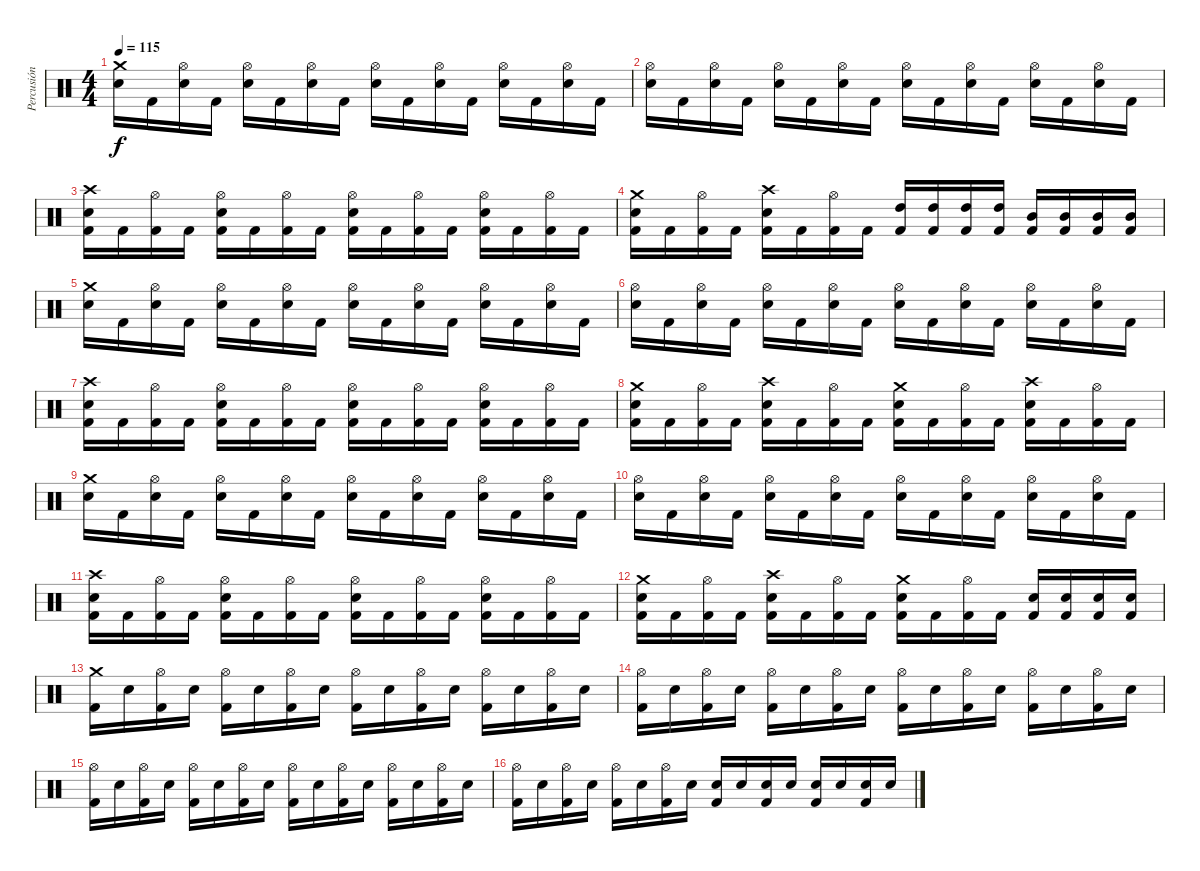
\track ("Percusión" "Percusión") {instrument percussion}
\staff {score}
\articulation defaults
\ts (4 4)
\tempo 115
\clef neutral
\ks c
("Crash medium (hit)" "Snare (hit) 2").16{dy f} "Kick (hit) 2".16 ("Hi-Hat (open)" "Snare (hit) 2").16 "Kick (hit) 2".16 ("Hi-Hat (open)" "Snare (hit) 2").16 "Kick (hit) 2".16 ("Hi-Hat (open)" "Snare (hit) 2").16 "Kick (hit) 2".16 ("Hi-Hat (open)" "Snare (hit) 2").16 "Kick (hit) 2".16 ("Hi-Hat (open)" "Snare (hit) 2").16 "Kick (hit) 2".16 ("Hi-Hat (open)" "Snare (hit) 2").16 "Kick (hit) 2".16 ("Hi-Hat (open)" "Snare (hit) 2").16 "Kick (hit) 2".16 |
("Hi-Hat (open)" "Snare (hit) 2").16 "Kick (hit) 2".16 ("Hi-Hat (open)" "Snare (hit) 2").16 "Kick (hit) 2".16 ("Hi-Hat (open)" "Snare (hit) 2").16 "Kick (hit) 2".16 ("Hi-Hat (open)" "Snare (hit) 2").16 "Kick (hit) 2".16 ("Hi-Hat (open)" "Snare (hit) 2").16 "Kick (hit) 2".16 ("Hi-Hat (open)" "Snare (hit) 2").16 "Kick (hit) 2".16 ("Hi-Hat (open)" "Snare (hit) 2").16 "Kick (hit) 2".16 ("Hi-Hat (open)" "Snare (hit) 2").16 "Kick (hit) 2".16 |
("Crash high (hit)" "Snare (hit) 2" "Kick (hit) 2").16 "Kick (hit) 2".16 ("Hi-Hat (open)" "Kick (hit) 2").16 "Kick (hit) 2".16 ("Hi-Hat (open)" "Snare (hit) 2" "Kick (hit) 2").16 "Kick (hit) 2".16 ("Hi-Hat (open)" "Kick (hit) 2").16 "Kick (hit) 2".16 ("Hi-Hat (open)" "Snare (hit) 2" "Kick (hit) 2").16 "Kick (hit) 2".16 ("Hi-Hat (open)" "Kick (hit) 2").16 "Kick (hit) 2".16 ("Hi-Hat (open)" "Snare (hit) 2" "Kick (hit) 2").16 "Kick (hit) 2".16 ("Hi-Hat (open)" "Kick (hit) 2").16 "Kick (hit) 2".16 |
("Crash medium (hit)" "Snare (hit) 2" "Kick (hit) 2").16 "Kick (hit) 2".16 ("Hi-Hat (open)" "Kick (hit) 2").16 "Kick (hit) 2".16 ("Crash high (hit)" "Snare (hit) 2" "Kick (hit) 2").16 "Kick (hit) 2".16 ("Hi-Hat (open)" "Kick (hit) 2").16 "Kick (hit) 2".16 ("High Tom (hit)" "Kick (hit) 2").16 ("High Tom (hit)" "Kick (hit) 2").16 ("High Tom (hit)" "Kick (hit) 2").16 ("High Tom (hit)" "Kick (hit) 2").16 ("Mid Tom (hit)" "Kick (hit) 2").16 ("Mid Tom (hit)" "Kick (hit) 2").16 ("Mid Tom (hit)" "Kick (hit) 2").16 ("Mid Tom (hit)" "Kick (hit) 2").16 |
("Crash medium (hit)" "Snare (hit) 2").16 "Kick (hit) 2".16 ("Hi-Hat (open)" "Snare (hit) 2").16 "Kick (hit) 2".16 ("Hi-Hat (open)" "Snare (hit) 2").16 "Kick (hit) 2".16 ("Hi-Hat (open)" "Snare (hit) 2").16 "Kick (hit) 2".16 ("Hi-Hat (open)" "Snare (hit) 2").16 "Kick (hit) 2".16 ("Hi-Hat (open)" "Snare (hit) 2").16 "Kick (hit) 2".16 ("Hi-Hat (open)" "Snare (hit) 2").16 "Kick (hit) 2".16 ("Hi-Hat (open)" "Snare (hit) 2").16 "Kick (hit) 2".16 |
("Hi-Hat (open)" "Snare (hit) 2").16 "Kick (hit) 2".16 ("Hi-Hat (open)" "Snare (hit) 2").16 "Kick (hit) 2".16 ("Hi-Hat (open)" "Snare (hit) 2").16 "Kick (hit) 2".16 ("Hi-Hat (open)" "Snare (hit) 2").16 "Kick (hit) 2".16 ("Hi-Hat (open)" "Snare (hit) 2").16 "Kick (hit) 2".16 ("Hi-Hat (open)" "Snare (hit) 2").16 "Kick (hit) 2".16 ("Hi-Hat (open)" "Snare (hit) 2").16 "Kick (hit) 2".16 ("Hi-Hat (open)" "Snare (hit) 2").16 "Kick (hit) 2".16 |
("Crash high (hit)" "Snare (hit) 2" "Kick (hit) 2").16 "Kick (hit) 2".16 ("Hi-Hat (open)" "Kick (hit) 2").16 "Kick (hit) 2".16 ("Hi-Hat (open)" "Snare (hit) 2" "Kick (hit) 2").16 "Kick (hit) 2".16 ("Hi-Hat (open)" "Kick (hit) 2").16 "Kick (hit) 2".16 ("Hi-Hat (open)" "Snare (hit) 2" "Kick (hit) 2").16 "Kick (hit) 2".16 ("Hi-Hat (open)" "Kick (hit) 2").16 "Kick (hit) 2".16 ("Hi-Hat (open)" "Snare (hit) 2" "Kick (hit) 2").16 "Kick (hit) 2".16 ("Hi-Hat (open)" "Kick (hit) 2").16 "Kick (hit) 2".16 |
("Crash medium (hit)" "Snare (hit) 2" "Kick (hit) 2").16 "Kick (hit) 2".16 ("Hi-Hat (open)" "Kick (hit) 2").16 "Kick (hit) 2".16 ("Crash high (hit)" "Snare (hit) 2" "Kick (hit) 2").16 "Kick (hit) 2".16 ("Hi-Hat (open)" "Kick (hit) 2").16 "Kick (hit) 2".16 ("Crash medium (hit)" "Snare (hit) 2" "Kick (hit) 2").16 "Kick (hit) 2".16 ("Hi-Hat (open)" "Kick (hit) 2").16 "Kick (hit) 2".16 ("Crash high (hit)" "Snare (hit) 2" "Kick (hit) 2").16 "Kick (hit) 2".16 ("Hi-Hat (open)" "Kick (hit) 2").16 "Kick (hit) 2".16 |
("Crash medium (hit)" "Snare (hit) 2").16 "Kick (hit) 2".16 ("Hi-Hat (open)" "Snare (hit) 2").16 "Kick (hit) 2".16 ("Hi-Hat (open)" "Snare (hit) 2").16 "Kick (hit) 2".16 ("Hi-Hat (open)" "Snare (hit) 2").16 "Kick (hit) 2".16 ("Hi-Hat (open)" "Snare (hit) 2").16 "Kick (hit) 2".16 ("Hi-Hat (open)" "Snare (hit) 2").16 "Kick (hit) 2".16 ("Hi-Hat (open)" "Snare (hit) 2").16 "Kick (hit) 2".16 ("Hi-Hat (open)" "Snare (hit) 2").16 "Kick (hit) 2".16 |
("Hi-Hat (open)" "Snare (hit) 2").16 "Kick (hit) 2".16 ("Hi-Hat (open)" "Snare (hit) 2").16 "Kick (hit) 2".16 ("Hi-Hat (open)" "Snare (hit) 2").16 "Kick (hit) 2".16 ("Hi-Hat (open)" "Snare (hit) 2").16 "Kick (hit) 2".16 ("Hi-Hat (open)" "Snare (hit) 2").16 "Kick (hit) 2".16 ("Hi-Hat (open)" "Snare (hit) 2").16 "Kick (hit) 2".16 ("Hi-Hat (open)" "Snare (hit) 2").16 "Kick (hit) 2".16 ("Hi-Hat (open)" "Snare (hit) 2").16 "Kick (hit) 2".16 |
("Crash high (hit)" "Snare (hit) 2" "Kick (hit) 2").16 "Kick (hit) 2".16 ("Hi-Hat (open)" "Kick (hit) 2").16 "Kick (hit) 2".16 ("Hi-Hat (open)" "Snare (hit) 2" "Kick (hit) 2").16 "Kick (hit) 2".16 ("Hi-Hat (open)" "Kick (hit) 2").16 "Kick (hit) 2".16 ("Hi-Hat (open)" "Snare (hit) 2" "Kick (hit) 2").16 "Kick (hit) 2".16 ("Hi-Hat (open)" "Kick (hit) 2").16 "Kick (hit) 2".16 ("Hi-Hat (open)" "Snare (hit) 2" "Kick (hit) 2").16 "Kick (hit) 2".16 ("Hi-Hat (open)" "Kick (hit) 2").16 "Kick (hit) 2".16 |
("Crash medium (hit)" "Snare (hit) 2" "Kick (hit) 2").16 "Kick (hit) 2".16 ("Hi-Hat (open)" "Kick (hit) 2").16 "Kick (hit) 2".16 ("Crash high (hit)" "Snare (hit) 2" "Kick (hit) 2").16 "Kick (hit) 2".16 ("Hi-Hat (open)" "Kick (hit) 2").16 "Kick (hit) 2".16 ("Crash medium (hit)" "Snare (hit) 2" "Kick (hit) 2").16 "Kick (hit) 2".16 ("Hi-Hat (open)" "Kick (hit) 2").16 "Kick (hit) 2".16 ("Snare (hit) 2" "Kick (hit) 2").16 ("Snare (hit) 2" "Kick (hit) 2").16 ("Snare (hit) 2" "Kick (hit) 2").16 ("Snare (hit) 2" "Kick (hit) 2").16 |
("Crash medium (hit)" "Kick (hit) 2").16 "Snare (hit) 2".16 ("Hi-Hat (open)" "Kick (hit) 2").16 "Snare (hit) 2".16 ("Hi-Hat (open)" "Kick (hit) 2").16 "Snare (hit) 2".16 ("Hi-Hat (open)" "Kick (hit) 2").16 "Snare (hit) 2".16 ("Hi-Hat (open)" "Kick (hit) 2").16 "Snare (hit) 2".16 ("Hi-Hat (open)" "Kick (hit) 2").16 "Snare (hit) 2".16 ("Hi-Hat (open)" "Kick (hit) 2").16 "Snare (hit) 2".16 ("Hi-Hat (open)" "Kick (hit) 2").16 "Snare (hit) 2".16 |
("Hi-Hat (open)" "Kick (hit) 2").16 "Snare (hit) 2".16 ("Hi-Hat (open)" "Kick (hit) 2").16 "Snare (hit) 2".16 ("Hi-Hat (open)" "Kick (hit) 2").16 "Snare (hit) 2".16 ("Hi-Hat (open)" "Kick (hit) 2").16 "Snare (hit) 2".16 ("Hi-Hat (open)" "Kick (hit) 2").16 "Snare (hit) 2".16 ("Hi-Hat (open)" "Kick (hit) 2").16 "Snare (hit) 2".16 ("Hi-Hat (open)" "Kick (hit) 2").16 "Snare (hit) 2".16 ("Hi-Hat (open)" "Kick (hit) 2").16 "Snare (hit) 2".16 |
("Hi-Hat (open)" "Kick (hit) 2").16 "Snare (hit) 2".16 ("Hi-Hat (open)" "Kick (hit) 2").16 "Snare (hit) 2".16 ("Hi-Hat (open)" "Kick (hit) 2").16 "Snare (hit) 2".16 ("Hi-Hat (open)" "Kick (hit) 2").16 "Snare (hit) 2".16 ("Hi-Hat (open)" "Kick (hit) 2").16 "Snare (hit) 2".16 ("Hi-Hat (open)" "Kick (hit) 2").16 "Snare (hit) 2".16 ("Hi-Hat (open)" "Kick (hit) 2").16 "Snare (hit) 2".16 ("Hi-Hat (open)" "Kick (hit) 2").16 "Snare (hit) 2".16 |
("Hi-Hat (open)" "Kick (hit) 2").16 "Snare (hit) 2".16 ("Hi-Hat (open)" "Kick (hit) 2").16 "Snare (hit) 2".16 ("Hi-Hat (open)" "Kick (hit) 2").16 "Snare (hit) 2".16 ("Hi-Hat (open)" "Kick (hit) 2").16 "Snare (hit) 2".16 ("Snare (hit) 2" "Kick (hit) 2").16 "Snare (hit) 2".16 ("Snare (hit) 2" "Kick (hit) 2").16 "Snare (hit) 2".16 ("Snare (hit) 2" "Kick (hit) 2").16 "Snare (hit) 2".16 ("Snare (hit) 2" "Kick (hit) 2").16 "Snare (hit) 2".16
